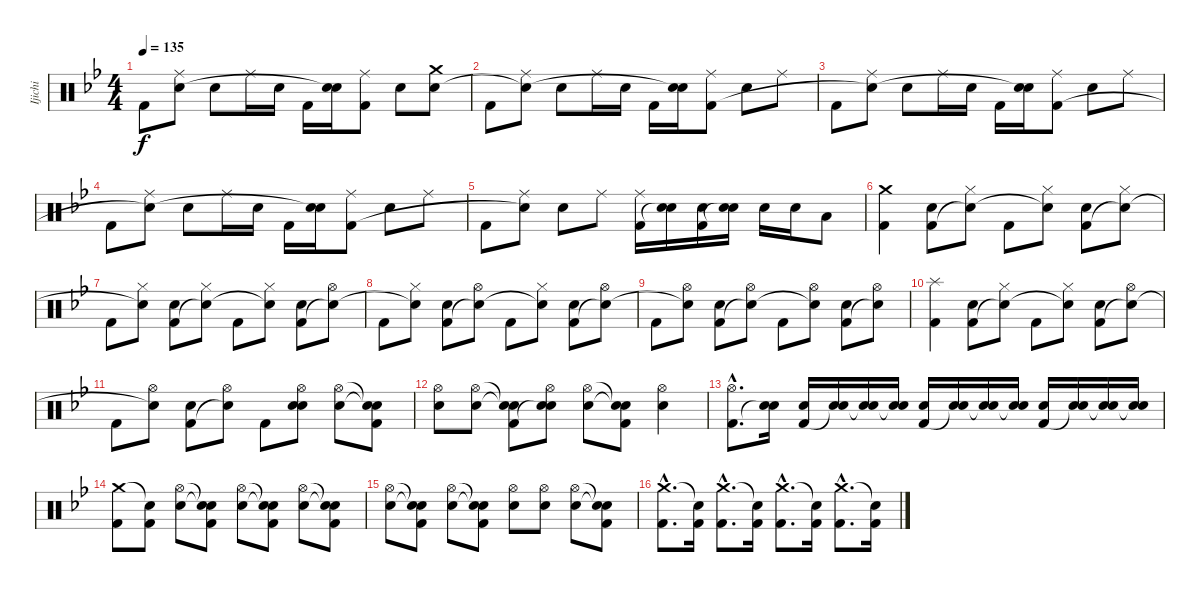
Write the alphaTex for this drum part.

\track ("Ijichi" "Ijichi") {instrument percussion}
\staff {score}
\articulation defaults
\ts (4 4)
\tempo 135
\clef neutral
\ks bb "Kick (hit) 2".8{dy f}
("Ride (middle)" "Snare (hit)"{t}).8 "Electric Snare (hit)".8 "Ride (middle)".16 "Electric Snare (hit)".16 "Kick (hit) 2".16 ("Electric Snare (hit)" "Snare (hit)"{t}).16 ("Ride (middle)" "Kick (hit) 2").8 "Electric Snare (hit)".8 ("Crash medium (hit)" "Electric Snare (hit)").8 |
"Kick (hit) 2".8 ("Ride (middle)" "Snare (hit)"{t}).8 "Electric Snare (hit)".8 "Ride (middle)".16 "Electric Snare (hit)".16 "Kick (hit) 2".16 ("Electric Snare (hit)" "Snare (hit)"{t}).16 ("Ride (middle)" "Kick (hit) 2").8 "Electric Snare (hit)".8 "Ride (middle)".8 |
"Kick (hit) 2".8 ("Ride (middle)" "Snare (hit)"{t}).8 "Electric Snare (hit)".8 "Ride (middle)".16 "Electric Snare (hit)".16 "Kick (hit) 2".16 ("Electric Snare (hit)" "Snare (hit)"{t}).16 ("Ride (middle)" "Kick (hit) 2").8 "Electric Snare (hit)".8 "Ride (middle)".8 |
"Kick (hit) 2".8 ("Ride (middle)" "Snare (hit)"{t}).8 "Electric Snare (hit)".8 "Ride (middle)".16 "Electric Snare (hit)".16 "Kick (hit) 2".16 ("Electric Snare (hit)" "Snare (hit)"{t}).16 ("Ride (middle)" "Kick (hit) 2").8 "Electric Snare (hit)".8 "Ride (middle)".8 |
"Kick (hit) 2".8 ("Ride (middle)" "Snare (hit)"{t}).8 "Electric Snare (hit)".8 "Ride (middle)".8 ("Ride (middle)" "Kick (hit) 2").16 ("Electric Snare (hit)" "Snare (hit)"{t}).16 ("Electric Snare (hit)" "Kick (hit) 2").16 ("Electric Snare (hit)" "Snare (hit)"{t}).16 "Electric Snare (hit)".16 "Electric Snare (hit)".16 "Low Tom (hit)".8 |
("Crash medium (hit)" "Kick (hit) 2").4 ("Electric Snare (hit)" "Kick (hit) 2").8 ("Hi-Hat (closed)" "Snare (hit)"{t}).8 "Kick (hit) 2".8 ("Hi-Hat (closed)" "Snare (hit)"{t}).8 ("Electric Snare (hit)" "Kick (hit) 2").8 ("Hi-Hat (closed)" "Snare (hit)"{t}).8 |
"Kick (hit) 2".8 ("Hi-Hat (closed)" "Snare (hit)"{t}).8 ("Electric Snare (hit)" "Kick (hit) 2").8 ("Hi-Hat (closed)" "Snare (hit)"{t}).8 "Kick (hit) 2".8 ("Hi-Hat (closed)" "Snare (hit)"{t}).8 ("Electric Snare (hit)" "Kick (hit) 2").8 ("Hi-Hat (open)" "Snare (hit)"{t}).8 |
"Kick (hit) 2".8 ("Hi-Hat (closed)" "Snare (hit)"{t}).8 ("Electric Snare (hit)" "Kick (hit) 2").8 ("Hi-Hat (open)" "Snare (hit)"{t}).8 "Kick (hit) 2".8 ("Hi-Hat (closed)" "Snare (hit)"{t}).8 ("Electric Snare (hit)" "Kick (hit) 2").8 ("Hi-Hat (open)" "Snare (hit)"{t}).8 |
"Kick (hit) 2".8 ("Hi-Hat (open)" "Snare (hit)"{t}).8 ("Electric Snare (hit)" "Kick (hit) 2").8 ("Hi-Hat (open)" "Snare (hit)"{t}).8 "Kick (hit) 2".8 ("Hi-Hat (open)" "Snare (hit)"{t}).8 ("Electric Snare (hit)" "Kick (hit) 2").8 ("Hi-Hat (open)" "Snare (hit)"{t}).8 |
("Splash (hit)" "Kick (hit) 2").4 ("Electric Snare (hit)" "Kick (hit) 2").8 ("Hi-Hat (closed)" "Snare (hit)"{t}).8 "Kick (hit) 2".8 ("Hi-Hat (closed)" "Snare (hit)"{t}).8 ("Electric Snare (hit)" "Kick (hit) 2").8 ("Hi-Hat (open)" "Snare (hit)"{t}).8 |
"Kick (hit) 2".8 ("Hi-Hat (open)" "Snare (hit)"{t}).8 ("Electric Snare (hit)" "Kick (hit) 2").8 ("Hi-Hat (open)" "Snare (hit)"{t}).8 "Kick (hit) 2".8 ("Hi-Hat (open)" "Electric Snare (hit)" "Snare (hit)").8 ("Hi-Hat (open)" "Electric Snare (hit)").8 ("Snare (hit)"{t} "Snare (hit)"{t} "Kick (hit) 2").8 |
("Hi-Hat (open)" "Electric Snare (hit)").8 ("Hi-Hat (open)" "Electric Snare (hit)").8 ("Snare (hit)"{t} "Snare (hit)"{t} "Kick (hit) 2").8 ("Hi-Hat (open)" "Electric Snare (hit)" "Snare (hit)"{t}).8 ("Hi-Hat (open)" "Electric Snare (hit)").8 ("Snare (hit)"{t} "Snare (hit)"{t} "Kick (hit) 2").8 ("Hi-Hat (open)" "Electric Snare (hit)").4 |
("Hi-Hat (open)"{hac} "Kick (hit) 2"{hac}).8{d} ("Electric Snare (hit)" "Snare (hit)"{t}).16 ("Electric Snare (hit)" "Kick (hit) 2").16 ("Electric Snare (hit)" "Snare (hit)"{t}).16 ("Electric Snare (hit)" "Snare (hit)"{t}).16 ("Electric Snare (hit)" "Snare (hit)"{t}).16 ("Electric Snare (hit)" "Kick (hit) 2").16 ("Electric Snare (hit)" "Snare (hit)"{t}).16 ("Electric Snare (hit)" "Snare (hit)"{t}).16 ("Electric Snare (hit)" "Snare (hit)"{t}).16 ("Electric Snare (hit)" "Kick (hit) 2").16 ("Electric Snare (hit)" "Snare (hit)"{t}).16 ("Electric Snare (hit)" "Snare (hit)"{t}).16 ("Electric Snare (hit)" "Snare (hit)"{t}).16 |
("Crash medium (hit)" "Kick (hit) 2").8 ("Snare (hit)"{t} "Kick (hit) 2").8 ("Hi-Hat (open)" "Electric Snare (hit)").8 ("Snare (hit)"{t} "Snare (hit)"{t} "Kick (hit) 2").8 ("Hi-Hat (open)" "Electric Snare (hit)").8 ("Snare (hit)"{t} "Snare (hit)"{t} "Kick (hit) 2").8 ("Hi-Hat (open)" "Electric Snare (hit)").8 ("Snare (hit)"{t} "Snare (hit)"{t} "Kick (hit) 2").8 |
("Hi-Hat (open)" "Electric Snare (hit)").8 ("Snare (hit)"{t} "Snare (hit)"{t} "Kick (hit) 2").8 ("Hi-Hat (open)" "Electric Snare (hit)").8 ("Snare (hit)"{t} "Snare (hit)"{t} "Kick (hit) 2").8 ("Hi-Hat (open)" "Electric Snare (hit)").8 ("Hi-Hat (open)" "Electric Snare (hit)").8 ("Hi-Hat (open)" "Electric Snare (hit)").8 ("Snare (hit)"{t} "Snare (hit)"{t} "Kick (hit) 2").8 |
("Crash medium (hit)"{hac} "Kick (hit) 2"{hac}).8{d} ("Snare (hit)"{t} "Kick (hit) 2").16 ("Crash medium (hit)"{hac} "Kick (hit) 2"{hac}).8{d} ("Snare (hit)"{t} "Kick (hit) 2").16 ("Crash medium (hit)"{hac} "Kick (hit) 2"{hac}).8{d} ("Snare (hit)"{t} "Kick (hit) 2").16 ("Crash medium (hit)"{hac} "Kick (hit) 2"{hac}).8{d} ("Snare (hit)"{t} "Kick (hit) 2").16
